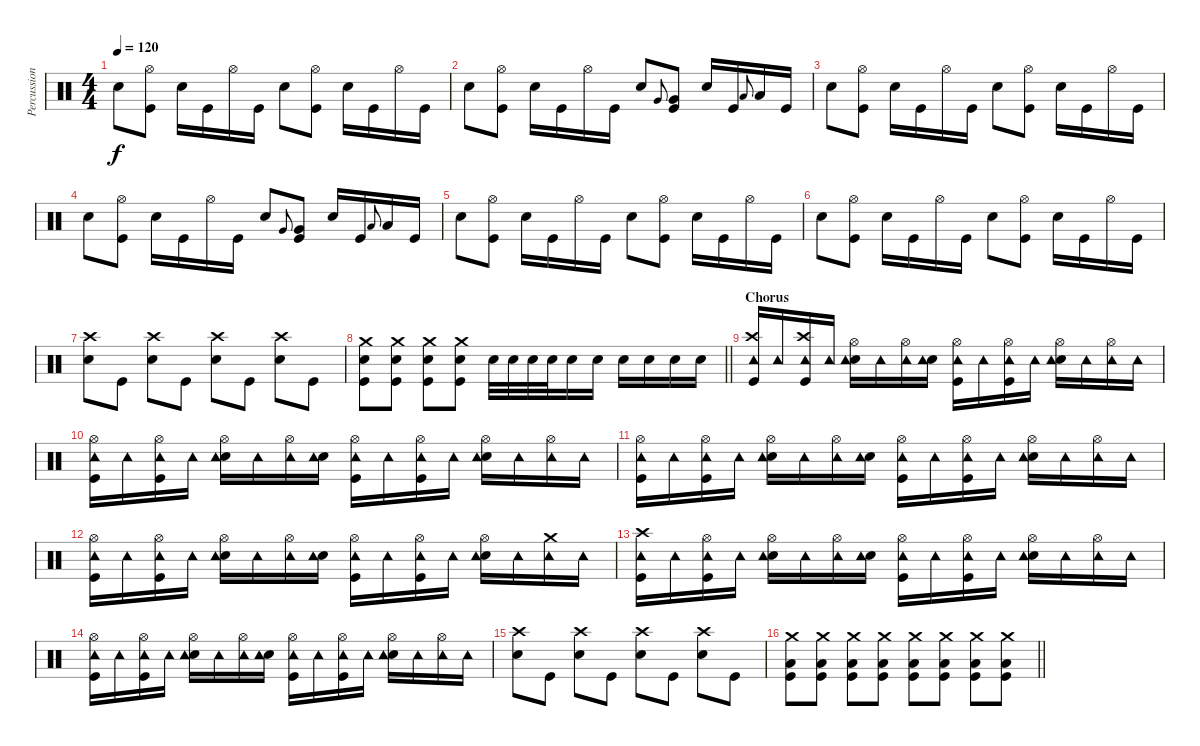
\track ("Percussion" "Percussion") {instrument percussion}
\staff {score}
\articulation defaults
\ts (4 4)
\tempo 120
\clef neutral
\ks c "Electric Snare (hit)".8{dy f}
("Hi-Hat (open)" "Kick (hit)").8 "Electric Snare (hit)".16 "Kick (hit)".16 "Hi-Hat (open)".16 "Kick (hit)".16 "Electric Snare (hit)".8 ("Hi-Hat (open)" "Kick (hit)").8 "Electric Snare (hit)".16 "Kick (hit)".16 "Hi-Hat (open)".16 "Kick (hit)".16 |
"Electric Snare (hit)".8 ("Hi-Hat (open)" "Kick (hit)").8 "Electric Snare (hit)".16 "Kick (hit)".16 "Hi-Hat (open)".16 "Kick (hit)".16 "Electric Snare (hit)".8 "Very Low Tom (hit)".8{gr onbeat} ("Very Low Tom (hit)" "Kick (hit)").8 "Electric Snare (hit)".16 "Kick (hit)".16 "Low Floor Tom (hit)".8{gr onbeat} "Low Floor Tom (hit)".16 "Kick (hit)".16 |
"Electric Snare (hit)".8 ("Hi-Hat (open)" "Kick (hit)").8 "Electric Snare (hit)".16 "Kick (hit)".16 "Hi-Hat (open)".16 "Kick (hit)".16 "Electric Snare (hit)".8 ("Hi-Hat (open)" "Kick (hit)").8 "Electric Snare (hit)".16 "Kick (hit)".16 "Hi-Hat (open)".16 "Kick (hit)".16 |
"Electric Snare (hit)".8 ("Hi-Hat (open)" "Kick (hit)").8 "Electric Snare (hit)".16 "Kick (hit)".16 "Hi-Hat (open)".16 "Kick (hit)".16 "Electric Snare (hit)".8 "Very Low Tom (hit)".8{gr onbeat} ("Very Low Tom (hit)" "Kick (hit)").8 "Electric Snare (hit)".16 "Kick (hit)".16 "Low Floor Tom (hit)".8{gr onbeat} "Low Floor Tom (hit)".16 "Kick (hit)".16 |
"Electric Snare (hit)".8 ("Hi-Hat (open)" "Kick (hit)").8 "Electric Snare (hit)".16 "Kick (hit)".16 "Hi-Hat (open)".16 "Kick (hit)".16 "Electric Snare (hit)".8 ("Hi-Hat (open)" "Kick (hit)").8 "Electric Snare (hit)".16 "Kick (hit)".16 "Hi-Hat (open)".16 "Kick (hit)".16 |
"Electric Snare (hit)".8 ("Hi-Hat (open)" "Kick (hit)").8 "Electric Snare (hit)".16 "Kick (hit)".16 "Hi-Hat (open)".16 "Kick (hit)".16 "Electric Snare (hit)".8 ("Hi-Hat (open)" "Kick (hit)").8 "Electric Snare (hit)".16 "Kick (hit)".16 "Hi-Hat (open)".16 "Kick (hit)".16 |
("Crash high (hit)" "Electric Snare (hit)").8 "Kick (hit)".8 ("Crash high (hit)" "Electric Snare (hit)").8 "Kick (hit)".8 ("Crash high (hit)" "Electric Snare (hit)").8 "Kick (hit)".8 ("Crash high (hit)" "Electric Snare (hit)").8 "Kick (hit)".8 |
\barLineRight lightlight
("Crash medium (hit)" "Electric Snare (hit)" "Kick (hit)").8{volume 3} ("Crash medium (hit)" "Electric Snare (hit)" "Kick (hit)").8{volume 8} ("Crash medium (hit)" "Electric Snare (hit)" "Kick (hit)").8 ("Crash medium (hit)" "Electric Snare (hit)" "Kick (hit)").8 "Electric Snare (hit)".32 "Electric Snare (hit)".32 "Electric Snare (hit)".32 "Electric Snare (hit)".32 "Electric Snare (hit)".16 "Electric Snare (hit)".16 "Electric Snare (hit)".16 "Electric Snare (hit)".16 "Electric Snare (hit)".16 "Electric Snare (hit)".16 |
\section ("" "Chorus")
("Crash high (hit)" "Tambourine (hit)" "Kick (hit)").16 "Tambourine (hit)".16 ("Crash high (hit)" "Tambourine (hit)" "Kick (hit)").16 "Tambourine (hit)".16 ("Hi-Hat (open)" "Electric Snare (hit)" "Tambourine (hit)").16 "Tambourine (hit)".16 ("Hi-Hat (open)" "Tambourine (hit)").16 ("Electric Snare (hit)" "Tambourine (hit)").16 ("Hi-Hat (open)" "Tambourine (hit)" "Kick (hit)").16 "Tambourine (hit)".16 ("Hi-Hat (open)" "Tambourine (hit)" "Kick (hit)").16 "Tambourine (hit)".16 ("Hi-Hat (open)" "Electric Snare (hit)" "Tambourine (hit)").16 "Tambourine (hit)".16 ("Hi-Hat (open)" "Tambourine (hit)").16 "Tambourine (hit)".16 |
("Hi-Hat (open)" "Tambourine (hit)" "Kick (hit)").16 "Tambourine (hit)".16 ("Hi-Hat (open)" "Tambourine (hit)" "Kick (hit)").16 "Tambourine (hit)".16 ("Hi-Hat (open)" "Electric Snare (hit)" "Tambourine (hit)").16 "Tambourine (hit)".16 ("Hi-Hat (open)" "Tambourine (hit)").16 ("Electric Snare (hit)" "Tambourine (hit)").16 ("Hi-Hat (open)" "Tambourine (hit)" "Kick (hit)").16 "Tambourine (hit)".16 ("Hi-Hat (open)" "Tambourine (hit)" "Kick (hit)").16 "Tambourine (hit)".16 ("Hi-Hat (open)" "Electric Snare (hit)" "Tambourine (hit)").16 "Tambourine (hit)".16 ("Hi-Hat (open)" "Tambourine (hit)").16 "Tambourine (hit)".16 |
("Hi-Hat (open)" "Tambourine (hit)" "Kick (hit)").16 "Tambourine (hit)".16 ("Hi-Hat (open)" "Tambourine (hit)" "Kick (hit)").16 "Tambourine (hit)".16 ("Hi-Hat (open)" "Electric Snare (hit)" "Tambourine (hit)").16 "Tambourine (hit)".16 ("Hi-Hat (open)" "Tambourine (hit)").16 ("Electric Snare (hit)" "Tambourine (hit)").16 ("Hi-Hat (open)" "Tambourine (hit)" "Kick (hit)").16 "Tambourine (hit)".16 ("Hi-Hat (open)" "Tambourine (hit)" "Kick (hit)").16 "Tambourine (hit)".16 ("Hi-Hat (open)" "Electric Snare (hit)" "Tambourine (hit)").16 "Tambourine (hit)".16 ("Hi-Hat (open)" "Tambourine (hit)").16 "Tambourine (hit)".16 |
("Hi-Hat (open)" "Tambourine (hit)" "Kick (hit)").16 "Tambourine (hit)".16 ("Hi-Hat (open)" "Tambourine (hit)" "Kick (hit)").16 "Tambourine (hit)".16 ("Hi-Hat (open)" "Electric Snare (hit)" "Tambourine (hit)").16 "Tambourine (hit)".16 ("Hi-Hat (open)" "Tambourine (hit)").16 ("Electric Snare (hit)" "Tambourine (hit)").16 ("Hi-Hat (open)" "Tambourine (hit)" "Kick (hit)").16 "Tambourine (hit)".16 ("Hi-Hat (open)" "Tambourine (hit)" "Kick (hit)").16 "Tambourine (hit)".16 ("Hi-Hat (open)" "Electric Snare (hit)" "Tambourine (hit)").16 "Tambourine (hit)".16 ("Crash medium (hit)" "Tambourine (hit)").16 "Tambourine (hit)".16 |
("Crash high (hit)" "Tambourine (hit)" "Kick (hit)").16 "Tambourine (hit)".16 ("Hi-Hat (open)" "Tambourine (hit)" "Kick (hit)").16 "Tambourine (hit)".16 ("Hi-Hat (open)" "Electric Snare (hit)" "Tambourine (hit)").16 "Tambourine (hit)".16 ("Hi-Hat (open)" "Tambourine (hit)").16 ("Electric Snare (hit)" "Tambourine (hit)").16 ("Hi-Hat (open)" "Tambourine (hit)" "Kick (hit)").16 "Tambourine (hit)".16 ("Hi-Hat (open)" "Tambourine (hit)" "Kick (hit)").16 "Tambourine (hit)".16 ("Hi-Hat (open)" "Electric Snare (hit)" "Tambourine (hit)").16 "Tambourine (hit)".16 ("Hi-Hat (open)" "Tambourine (hit)").16 "Tambourine (hit)".16 |
("Hi-Hat (open)" "Tambourine (hit)" "Kick (hit)").16 "Tambourine (hit)".16 ("Hi-Hat (open)" "Tambourine (hit)" "Kick (hit)").16 "Tambourine (hit)".16 ("Hi-Hat (open)" "Electric Snare (hit)" "Tambourine (hit)").16 "Tambourine (hit)".16 ("Hi-Hat (open)" "Tambourine (hit)").16 ("Electric Snare (hit)" "Tambourine (hit)").16 ("Hi-Hat (open)" "Tambourine (hit)" "Kick (hit)").16 "Tambourine (hit)".16 ("Hi-Hat (open)" "Tambourine (hit)" "Kick (hit)").16 "Tambourine (hit)".16 ("Hi-Hat (open)" "Electric Snare (hit)" "Tambourine (hit)").16 "Tambourine (hit)".16 ("Hi-Hat (open)" "Tambourine (hit)").16 "Tambourine (hit)".16 |
("Crash high (hit)" "Electric Snare (hit)").8 "Kick (hit)".8 ("Crash high (hit)" "Electric Snare (hit)").8 "Kick (hit)".8 ("Crash high (hit)" "Electric Snare (hit)").8 "Kick (hit)".8 ("Crash high (hit)" "Electric Snare (hit)").8 "Kick (hit)".8 |
\barLineRight lightlight
("Crash medium (hit)" "Low Floor Tom (hit)" "Kick (hit)").8{volume 3} ("Crash medium (hit)" "Low Floor Tom (hit)" "Kick (hit)").8{volume 8} ("Crash medium (hit)" "Low Floor Tom (hit)" "Kick (hit)").8 ("Crash medium (hit)" "Low Floor Tom (hit)" "Kick (hit)").8 ("Crash medium (hit)" "Low Floor Tom (hit)" "Kick (hit)").8 ("Crash medium (hit)" "Low Floor Tom (hit)" "Kick (hit)").8 ("Crash medium (hit)" "Low Floor Tom (hit)" "Kick (hit)").8 ("Crash medium (hit)" "Low Floor Tom (hit)" "Kick (hit)").8
